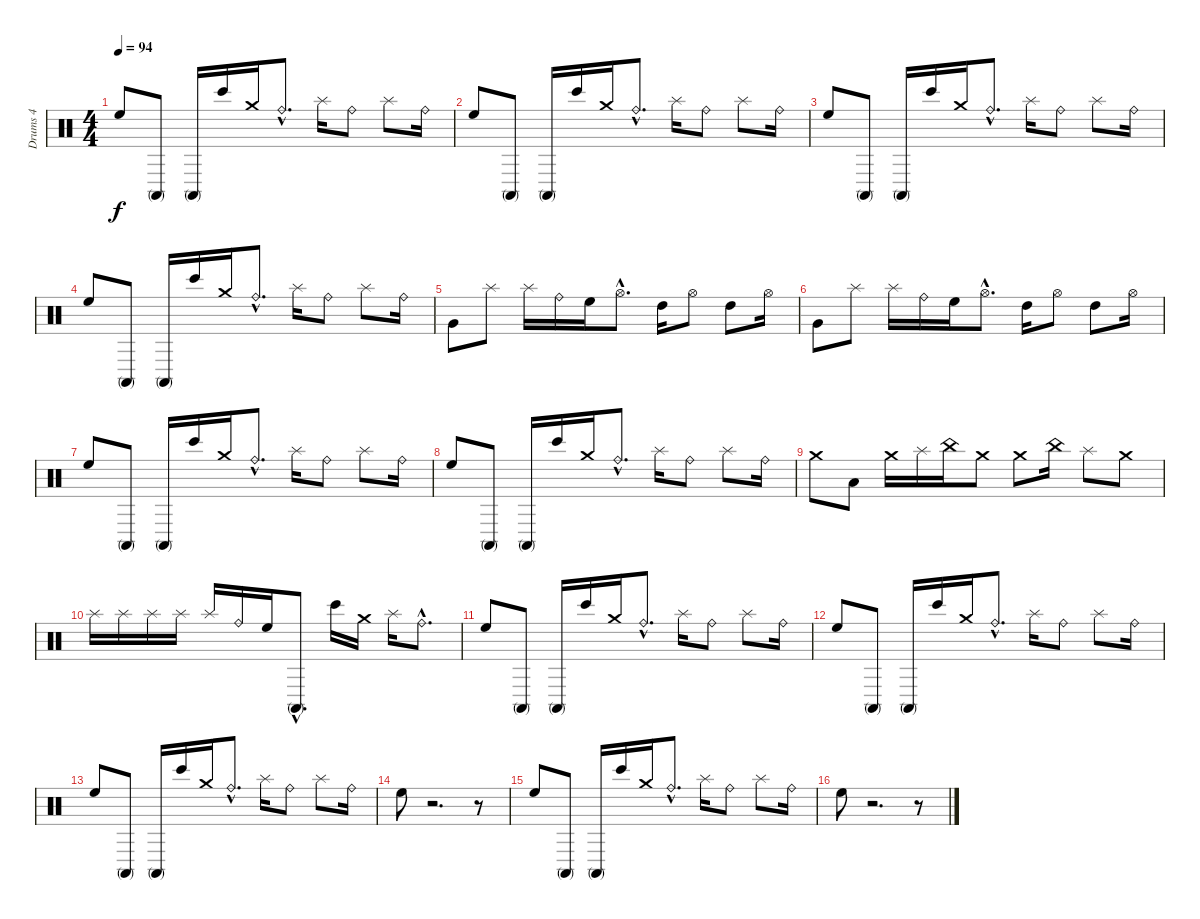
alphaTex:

\track ("Drums 4" "Drums 4") {instrument percussion}
\staff {score}
\articulation defaults
\ts (4 4)
\tempo 94
\clef neutral
\ks c "High Floor Tom (hit)".8{dy f} "Conga high (mute)".8 "Conga high (mute)".16 "Bongo High (hit)".16 "Crash medium (hit)".16 "Ride (bell)"{hac}.8{d} "Splash (hit)".16 "Ride (bell)".8 "Splash (hit)".8 "Ride (bell)".16
|
"High Floor Tom (hit)".8 "Conga high (mute)".8 "Conga high (mute)".16 "Bongo High (hit)".16 "Crash medium (hit)".16 "Ride (bell)"{hac}.8{d} "Splash (hit)".16 "Ride (bell)".8 "Splash (hit)".8 "Ride (bell)".16 |
"High Floor Tom (hit)".8 "Conga high (mute)".8 "Conga high (mute)".16 "Bongo High (hit)".16 "Crash medium (hit)".16 "Ride (bell)"{hac}.8{d} "Splash (hit)".16 "Ride (bell)".8 "Splash (hit)".8 "Ride (bell)".16 |
"High Floor Tom (hit)".8 "Conga high (mute)".8 "Conga high (mute)".16 "Bongo High (hit)".16 "Crash medium (hit)".16 "Ride (bell)"{hac}.8{d} "Splash (hit)".16 "Ride (bell)".8 "Splash (hit)".8 "Ride (bell)".16 |
"Very Low Tom (hit)".8 "Splash (hit)".8 "Splash (hit)".16 "Ride (bell)".16 "High Floor Tom (hit)".16 "Hi-Hat (open)"{hac}.8{d} "High Tom (hit)".16 "Hi-Hat (open)".8 "High Tom (hit)".8 "Hi-Hat (open)".16 |
"Very Low Tom (hit)".8 "Splash (hit)".8 "Splash (hit)".16 "Ride (bell)".16 "High Floor Tom (hit)".16 "Hi-Hat (open)"{hac}.8{d} "High Tom (hit)".16 "Hi-Hat (open)".8 "High Tom (hit)".8 "Hi-Hat (open)".16 |
"High Floor Tom (hit)".8 "Conga high (mute)".8 "Conga high (mute)".16 "Bongo High (hit)".16 "Crash medium (hit)".16 "Ride (bell)"{hac}.8{d} "Splash (hit)".16 "Ride (bell)".8 "Splash (hit)".8 "Ride (bell)".16 |
"High Floor Tom (hit)".8 "Conga high (mute)".8 "Conga high (mute)".16 "Bongo High (hit)".16 "Crash medium (hit)".16 "Ride (bell)"{hac}.8{d} "Splash (hit)".16 "Ride (bell)".8 "Splash (hit)".8 "Ride (bell)".16 |
"Crash medium (hit)".8 "Low Tom (hit)".8 "Crash medium (hit)".16 "Splash (hit)".16 "China (hit)".16 "Crash medium (hit)".8 "Crash medium (hit)".8 "China (hit)".16 "Splash (hit)".8 "Crash medium (hit)".8 |
"Splash (hit)".16 "Splash (hit)".16 "Splash (hit)".16 "Splash (hit)".16 "Splash (hit)".16 "Ride (bell)".16 "High Floor Tom (hit)".16 "Conga high (mute)"{hac}.8{d} "Bongo High (hit)".16 "Crash medium (hit)".16 "Splash (hit)".16 "Ride (bell)"{hac}.8{d} |
"High Floor Tom (hit)".8 "Conga high (mute)".8 "Conga high (mute)".16 "Bongo High (hit)".16 "Crash medium (hit)".16 "Ride (bell)"{hac}.8{d} "Splash (hit)".16 "Ride (bell)".8 "Splash (hit)".8 "Ride (bell)".16 |
"High Floor Tom (hit)".8 "Conga high (mute)".8 "Conga high (mute)".16 "Bongo High (hit)".16 "Crash medium (hit)".16 "Ride (bell)"{hac}.8{d} "Splash (hit)".16 "Ride (bell)".8 "Splash (hit)".8 "Ride (bell)".16 |
"High Floor Tom (hit)".8 "Conga high (mute)".8 "Conga high (mute)".16 "Bongo High (hit)".16 "Crash medium (hit)".16 "Ride (bell)"{hac}.8{d} "Splash (hit)".16 "Ride (bell)".8 "Splash (hit)".8 "Ride (bell)".16 |
"High Floor Tom (hit)".8 r.2{d} r.8 |
"High Floor Tom (hit)".8 "Conga high (mute)".8 "Conga high (mute)".16 "Bongo High (hit)".16 "Crash medium (hit)".16 "Ride (bell)"{hac}.8{d} "Splash (hit)".16 "Ride (bell)".8 "Splash (hit)".8 "Ride (bell)".16 |
"High Floor Tom (hit)".8 r.2{d} r.8
